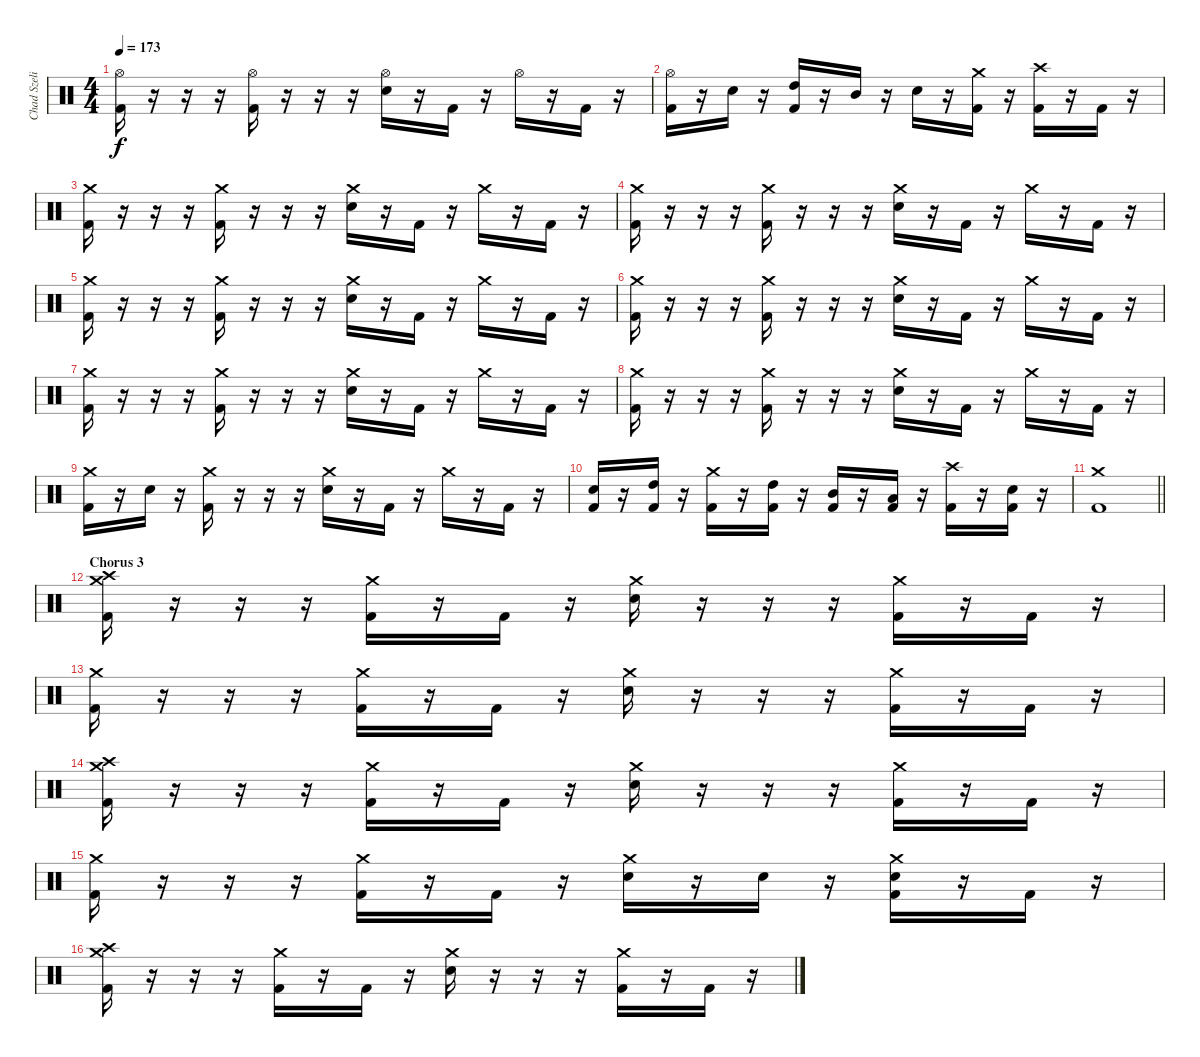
\track ("Chad Szeliga" "Chad Szeli") {instrument percussion}
\staff {score}
\articulation defaults
\ts (4 4)
\tempo 173
\clef neutral
\ks c
("Hi-Hat (open)" "Kick (hit) 2").16{dy f} r.16 r.16 r.16 ("Hi-Hat (open)" "Kick (hit) 2").16 r.16 r.16 r.16 ("Hi-Hat (open)" "Electric Snare (hit)").16 r.16 "Kick (hit) 2".16 r.16 "Hi-Hat (open)".16 r.16 "Kick (hit) 2".16 r.16 |
("Hi-Hat (open)" "Kick (hit) 2").16 r.16 "Electric Snare (hit)".16 r.16 ("High Tom (hit)" "Kick (hit) 2").16 r.16 "Mid Tom (hit)".16 r.16 "Electric Snare (hit)".16 r.16 ("Crash medium (hit)" "Kick (hit) 2").16 r.16 ("Crash high (hit)" "Kick (hit) 2").16 r.16 "Kick (hit) 2".16 r.16 |
("Crash medium (hit)" "Kick (hit) 2").16 r.16 r.16 r.16 ("Crash medium (hit)" "Kick (hit) 2").16 r.16 r.16 r.16 ("Crash medium (hit)" "Electric Snare (hit)").16 r.16 "Kick (hit) 2".16 r.16 "Crash medium (hit)".16 r.16 "Kick (hit) 2".16 r.16 |
("Crash medium (hit)" "Kick (hit) 2").16 r.16 r.16 r.16 ("Crash medium (hit)" "Kick (hit) 2").16 r.16 r.16 r.16 ("Crash medium (hit)" "Electric Snare (hit)").16 r.16 "Kick (hit) 2".16 r.16 "Crash medium (hit)".16 r.16 "Kick (hit) 2".16 r.16 |
("Crash medium (hit)" "Kick (hit) 2").16 r.16 r.16 r.16 ("Crash medium (hit)" "Kick (hit) 2").16 r.16 r.16 r.16 ("Crash medium (hit)" "Electric Snare (hit)").16 r.16 "Kick (hit) 2".16 r.16 "Crash medium (hit)".16 r.16 "Kick (hit) 2".16 r.16 |
("Crash medium (hit)" "Kick (hit) 2").16 r.16 r.16 r.16 ("Crash medium (hit)" "Kick (hit) 2").16 r.16 r.16 r.16 ("Crash medium (hit)" "Electric Snare (hit)").16 r.16 "Kick (hit) 2".16 r.16 "Crash medium (hit)".16 r.16 "Kick (hit) 2".16 r.16 |
("Crash medium (hit)" "Kick (hit) 2").16 r.16 r.16 r.16 ("Crash medium (hit)" "Kick (hit) 2").16 r.16 r.16 r.16 ("Crash medium (hit)" "Electric Snare (hit)").16 r.16 "Kick (hit) 2".16 r.16 "Crash medium (hit)".16 r.16 "Kick (hit) 2".16 r.16 |
("Crash medium (hit)" "Kick (hit) 2").16 r.16 r.16 r.16 ("Crash medium (hit)" "Kick (hit) 2").16 r.16 r.16 r.16 ("Crash medium (hit)" "Electric Snare (hit)").16 r.16 "Kick (hit) 2".16 r.16 "Crash medium (hit)".16 r.16 "Kick (hit) 2".16 r.16 |
("Crash medium (hit)" "Kick (hit) 2").16 r.16 "Electric Snare (hit)".16 r.16 ("Crash medium (hit)" "Kick (hit) 2").16 r.16 r.16 r.16 ("Crash medium (hit)" "Electric Snare (hit)").16 r.16 "Kick (hit) 2".16 r.16 "Crash medium (hit)".16 r.16 "Kick (hit) 2".16 r.16 |
("Electric Snare (hit)" "Kick (hit) 2").16 r.16 ("High Tom (hit)" "Kick (hit) 2").16 r.16 ("Crash medium (hit)" "Kick (hit) 2").16 r.16 ("High Tom (hit)" "Kick (hit) 2").16 r.16 ("Mid Tom (hit)" "Kick (hit) 2").16 r.16 ("Low Tom (hit)" "Kick (hit) 2").16 r.16 ("Crash high (hit)" "Kick (hit) 2").16 r.16 ("Electric Snare (hit)" "Kick (hit) 2").16 r.16 |
\barLineRight lightlight
("Crash medium (hit)" "Kick (hit) 2").1 |
\section ("" "Chorus 3")
("Crash medium (hit)" "Crash high (hit)" "Kick (hit) 2").16 r.16 r.16 r.16 ("Crash medium (hit)" "Kick (hit) 2").16 r.16 "Kick (hit) 2".16 r.16 ("Crash medium (hit)" "Electric Snare (hit)").16 r.16 r.16 r.16 ("Crash medium (hit)" "Kick (hit) 2").16 r.16 "Kick (hit) 2".16 r.16 |
("Crash medium (hit)" "Kick (hit) 2").16 r.16 r.16 r.16 ("Crash medium (hit)" "Kick (hit) 2").16 r.16 "Kick (hit) 2".16 r.16 ("Crash medium (hit)" "Electric Snare (hit)").16 r.16 r.16 r.16 ("Crash medium (hit)" "Kick (hit) 2").16 r.16 "Kick (hit) 2".16 r.16 |
("Crash medium (hit)" "Crash high (hit)" "Kick (hit) 2").16 r.16 r.16 r.16 ("Crash medium (hit)" "Kick (hit) 2").16 r.16 "Kick (hit) 2".16 r.16 ("Crash medium (hit)" "Electric Snare (hit)").16 r.16 r.16 r.16 ("Crash medium (hit)" "Kick (hit) 2").16 r.16 "Kick (hit) 2".16 r.16 |
("Crash medium (hit)" "Kick (hit) 2").16 r.16 r.16 r.16 ("Crash medium (hit)" "Kick (hit) 2").16 r.16 "Kick (hit) 2".16 r.16 ("Crash medium (hit)" "Electric Snare (hit)").16 r.16 "Electric Snare (hit)".16 r.16 ("Crash medium (hit)" "Electric Snare (hit)" "Kick (hit) 2").16 r.16 "Kick (hit) 2".16 r.16 |
("Crash medium (hit)" "Crash high (hit)" "Kick (hit) 2").16 r.16 r.16 r.16 ("Crash medium (hit)" "Kick (hit) 2").16 r.16 "Kick (hit) 2".16 r.16 ("Crash medium (hit)" "Electric Snare (hit)").16 r.16 r.16 r.16 ("Crash medium (hit)" "Kick (hit) 2").16 r.16 "Kick (hit) 2".16 r.16
